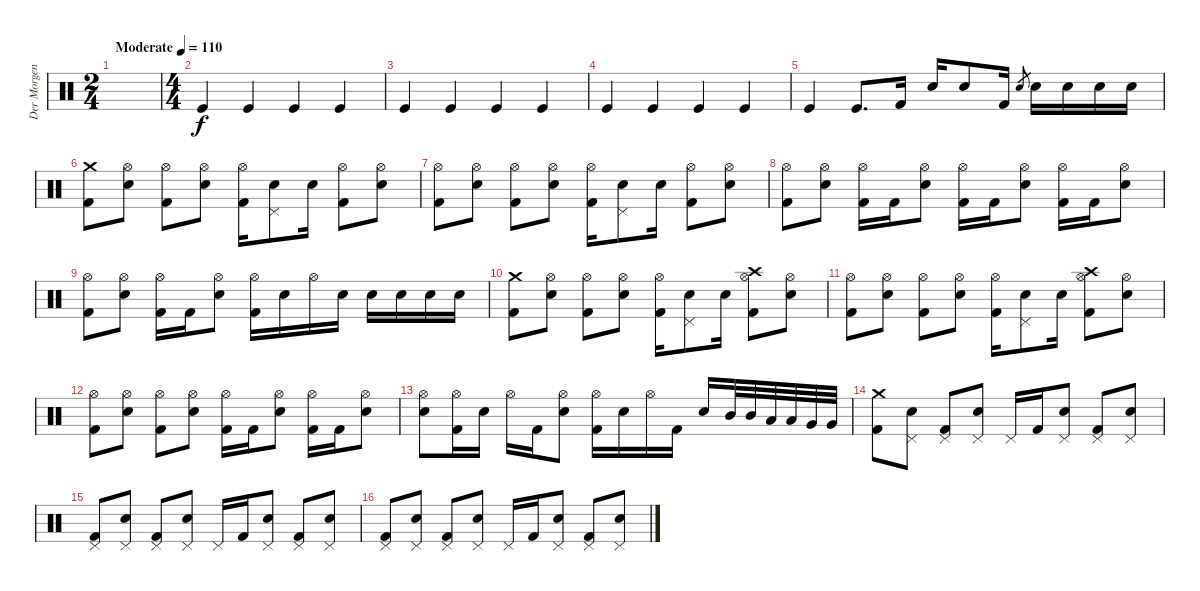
\track ("Der Morgenstern" "Der Morgen") {instrument percussion}
\staff {score}
\articulation defaults
\ts (2 4)
\tempo (110 "Moderate")
\clef neutral
\ks c
|
\ts (4 4)
"Kick (hit)".4 "Kick (hit)".4 "Kick (hit)".4 "Kick (hit)".4 |
"Kick (hit)".4 "Kick (hit)".4 "Kick (hit)".4 "Kick (hit)".4 |
"Kick (hit)".4 "Kick (hit)".4 "Kick (hit)".4 "Kick (hit)".4 |
"Kick (hit)".4 "Kick (hit)".8{d} "Kick (hit) 2".16 "Electric Snare (hit)".16 "Electric Snare (hit)".8 "Kick (hit) 2".16 "Electric Snare (hit)".8{gr} "Electric Snare (hit)".16 "Electric Snare (hit)".16 "Electric Snare (hit)".16 "Electric Snare (hit)".16 |
("Crash medium (hit)" "Kick (hit) 2").8 ("Hi-Hat (open)" "Electric Snare (hit)").8 ("Hi-Hat (open)" "Kick (hit) 2").8 ("Hi-Hat (open)" "Electric Snare (hit)").8 ("Hi-Hat (open)" "Kick (hit) 2").16 ("Pedal Hi-Hat (hit)" "Electric Snare (hit)").8 "Electric Snare (hit)".16 ("Hi-Hat (open)" "Kick (hit) 2").8 ("Hi-Hat (open)" "Electric Snare (hit)").8 |
("Hi-Hat (open)" "Kick (hit) 2").8 ("Hi-Hat (open)" "Electric Snare (hit)").8 ("Hi-Hat (open)" "Kick (hit) 2").8 ("Hi-Hat (open)" "Electric Snare (hit)").8 ("Hi-Hat (open)" "Kick (hit) 2").16 ("Pedal Hi-Hat (hit)" "Electric Snare (hit)").8 "Electric Snare (hit)".16 ("Hi-Hat (open)" "Kick (hit) 2").8 ("Hi-Hat (open)" "Electric Snare (hit)").8 |
("Hi-Hat (open)" "Kick (hit) 2").8 ("Hi-Hat (open)" "Electric Snare (hit)").8 ("Hi-Hat (open)" "Kick (hit) 2").16 "Kick (hit) 2".16 ("Hi-Hat (open)" "Electric Snare (hit)").8 ("Hi-Hat (open)" "Kick (hit) 2").16 "Kick (hit) 2".16 ("Hi-Hat (open)" "Electric Snare (hit)").8 ("Hi-Hat (open)" "Kick (hit) 2").16 "Kick (hit) 2".16 ("Hi-Hat (open)" "Electric Snare (hit)").8 |
("Hi-Hat (open)" "Kick (hit) 2").8 ("Hi-Hat (open)" "Electric Snare (hit)").8 ("Hi-Hat (open)" "Kick (hit) 2").16 "Kick (hit) 2".16 ("Hi-Hat (open)" "Electric Snare (hit)").8 ("Hi-Hat (open)" "Kick (hit) 2").16 "Electric Snare (hit)".16 "Hi-Hat (open)".16 "Electric Snare (hit)".16 "Electric Snare (hit)".16 "Electric Snare (hit)".16 "Electric Snare (hit)".16 "Electric Snare (hit)".16 |
("Crash medium (hit)" "Kick (hit) 2").8 ("Hi-Hat (open)" "Electric Snare (hit)").8 ("Hi-Hat (open)" "Kick (hit) 2").8 ("Hi-Hat (open)" "Electric Snare (hit)").8 ("Hi-Hat (open)" "Kick (hit) 2").16 ("Pedal Hi-Hat (hit)" "Electric Snare (hit)").8 "Electric Snare (hit)".16 ("Crash high (hit)" "Hi-Hat (open)" "Kick (hit) 2").8 ("Hi-Hat (open)" "Electric Snare (hit)").8 |
("Hi-Hat (open)" "Kick (hit) 2").8 ("Hi-Hat (open)" "Electric Snare (hit)").8 ("Hi-Hat (open)" "Kick (hit) 2").8 ("Hi-Hat (open)" "Electric Snare (hit)").8 ("Hi-Hat (open)" "Kick (hit) 2").16 ("Pedal Hi-Hat (hit)" "Electric Snare (hit)").8 "Electric Snare (hit)".16 ("Crash high (hit)" "Hi-Hat (open)" "Kick (hit) 2").8 ("Hi-Hat (open)" "Electric Snare (hit)").8 |
("Hi-Hat (open)" "Kick (hit) 2").8 ("Hi-Hat (open)" "Electric Snare (hit)").8 ("Hi-Hat (open)" "Kick (hit) 2").8 ("Hi-Hat (open)" "Electric Snare (hit)").8 ("Hi-Hat (open)" "Kick (hit) 2").16 "Kick (hit) 2".16 ("Hi-Hat (open)" "Electric Snare (hit)").8 ("Hi-Hat (open)" "Kick (hit) 2").16 "Kick (hit) 2".16 ("Hi-Hat (open)" "Electric Snare (hit)").8 |
("Hi-Hat (open)" "Electric Snare (hit)").8 ("Hi-Hat (open)" "Kick (hit) 2").16 "Electric Snare (hit)".16 "Hi-Hat (open)".16 "Kick (hit) 2".16 ("Hi-Hat (open)" "Electric Snare (hit)").8 ("Hi-Hat (open)" "Kick (hit) 2").16 "Electric Snare (hit)".16 "Hi-Hat (open)".16 "Kick (hit) 2".16 "Electric Snare (hit)".16 "Mid Tom (hit)".32 "Mid Tom (hit)".32 "Low Tom (hit)".32 "Low Tom (hit)".32 "Very Low Tom (hit)".32 "Very Low Tom (hit)".32 |
("Crash medium (hit)" "Kick (hit) 2").8 ("Pedal Hi-Hat (hit)" "Electric Snare (hit)").8 ("Pedal Hi-Hat (hit)" "Kick (hit) 2").8 ("Pedal Hi-Hat (hit)" "Electric Snare (hit)").8 "Pedal Hi-Hat (hit)".16 "Kick (hit) 2".16 ("Pedal Hi-Hat (hit)" "Electric Snare (hit)").8 ("Pedal Hi-Hat (hit)" "Kick (hit) 2").8 ("Pedal Hi-Hat (hit)" "Electric Snare (hit)").8 |
("Pedal Hi-Hat (hit)" "Kick (hit) 2").8 ("Pedal Hi-Hat (hit)" "Electric Snare (hit)").8 ("Pedal Hi-Hat (hit)" "Kick (hit) 2").8 ("Pedal Hi-Hat (hit)" "Electric Snare (hit)").8 "Pedal Hi-Hat (hit)".16 "Kick (hit) 2".16 ("Pedal Hi-Hat (hit)" "Electric Snare (hit)").8 ("Pedal Hi-Hat (hit)" "Kick (hit) 2").8 ("Pedal Hi-Hat (hit)" "Electric Snare (hit)").8 |
("Pedal Hi-Hat (hit)" "Kick (hit) 2").8 ("Pedal Hi-Hat (hit)" "Electric Snare (hit)").8 ("Pedal Hi-Hat (hit)" "Kick (hit) 2").8 ("Pedal Hi-Hat (hit)" "Electric Snare (hit)").8 "Pedal Hi-Hat (hit)".16 "Kick (hit) 2".16 ("Pedal Hi-Hat (hit)" "Electric Snare (hit)").8 ("Pedal Hi-Hat (hit)" "Kick (hit) 2").8 ("Pedal Hi-Hat (hit)" "Electric Snare (hit)").8
